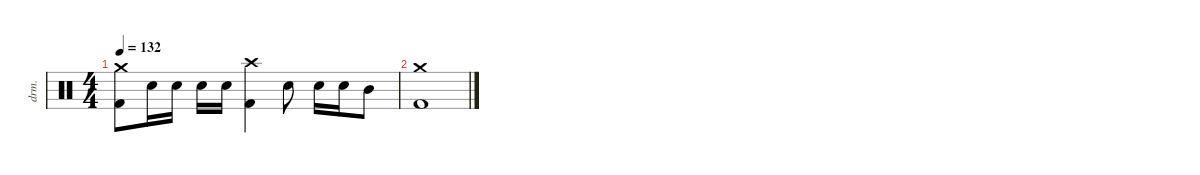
\defaultSystemsLayout 4
\hideDynamics
\bracketExtendMode nobrackets
\track ("敲击乐器" "drm.") {instrument percussion}
\staff {score}
\articulation defaults
\ts (4 4)
\tempo 132
\clef neutral
\ks c
("Crash medium (hit)" "Kick (hit) 2").8{dy f} "Snare (hit) 2".16 "Snare (hit) 2".16 "Snare (hit) 2".16 "Snare (hit) 2".16 ("Crash high (hit)" "Kick (hit) 2").4 "Snare (hit) 2".8 "Snare (hit) 2".16 "Snare (hit) 2".16 "Mid Tom (hit)".8 |
("Crash medium (hit)" "Kick (hit) 2").1
